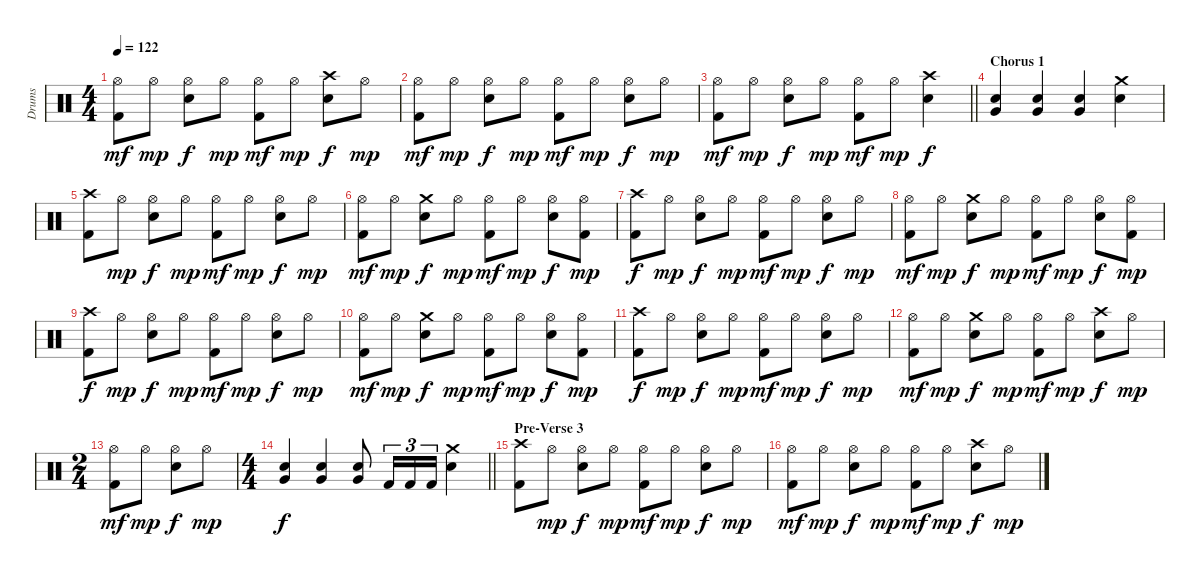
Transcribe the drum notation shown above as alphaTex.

\track ("Drums" "Drums") {instrument percussion}
\staff {score}
\articulation defaults
\ts (4 4)
\tempo 122
\clef neutral
\ks c
("Hi-Hat (open)" "Kick (hit) 2").8{dy mf} "Hi-Hat (open)".8{dy mp} ("Hi-Hat (open)" "Electric Snare (hit)").8{dy f} "Hi-Hat (open)".8{dy mp} ("Hi-Hat (open)" "Kick (hit) 2").8{dy mf} "Hi-Hat (open)".8{dy mp} ("Crash high (hit)" "Electric Snare (hit)").8{dy f} "Hi-Hat (open)".8{dy mp} |
("Hi-Hat (open)" "Kick (hit) 2").8{dy mf} "Hi-Hat (open)".8{dy mp} ("Hi-Hat (open)" "Electric Snare (hit)").8{dy f} "Hi-Hat (open)".8{dy mp} ("Hi-Hat (open)" "Kick (hit) 2").8{dy mf} "Hi-Hat (open)".8{dy mp} ("Hi-Hat (open)" "Electric Snare (hit)").8{dy f} "Hi-Hat (open)".8{dy mp} |
\barLineRight lightlight
("Hi-Hat (open)" "Kick (hit) 2").8{dy mf} "Hi-Hat (open)".8{dy mp} ("Hi-Hat (open)" "Electric Snare (hit)").8{dy f} "Hi-Hat (open)".8{dy mp} ("Hi-Hat (open)" "Kick (hit) 2").8{dy mf} "Hi-Hat (open)".8{dy mp} ("Crash high (hit)" "Electric Snare (hit)").4{dy f} |
\section ("" "Chorus 1")
("Very Low Tom (hit)" "Electric Snare (hit)").4 ("Very Low Tom (hit)" "Electric Snare (hit)").4 ("Very Low Tom (hit)" "Electric Snare (hit)").4 ("Crash medium (hit)" "Electric Snare (hit)").4 |
("Crash high (hit)" "Kick (hit) 2").8 "Hi-Hat (open)".8{dy mp} ("Hi-Hat (open)" "Electric Snare (hit)").8{dy f} "Hi-Hat (open)".8{dy mp} ("Hi-Hat (open)" "Kick (hit) 2").8{dy mf} "Hi-Hat (open)".8{dy mp} ("Hi-Hat (open)" "Electric Snare (hit)").8{dy f} "Hi-Hat (open)".8{dy mp} |
("Hi-Hat (open)" "Kick (hit) 2").8{dy mf} "Hi-Hat (open)".8{dy mp} ("Crash medium (hit)" "Electric Snare (hit)").8{dy f} "Hi-Hat (open)".8{dy mp} ("Hi-Hat (open)" "Kick (hit) 2").8{dy mf} "Hi-Hat (open)".8{dy mp} ("Hi-Hat (open)" "Electric Snare (hit)").8{dy f} ("Hi-Hat (open)" "Kick (hit) 2").8{dy mp} |
("Crash high (hit)" "Kick (hit) 2").8{dy f} "Hi-Hat (open)".8{dy mp} ("Hi-Hat (open)" "Electric Snare (hit)").8{dy f} "Hi-Hat (open)".8{dy mp} ("Hi-Hat (open)" "Kick (hit) 2").8{dy mf} "Hi-Hat (open)".8{dy mp} ("Hi-Hat (open)" "Electric Snare (hit)").8{dy f} "Hi-Hat (open)".8{dy mp} |
("Hi-Hat (open)" "Kick (hit) 2").8{dy mf} "Hi-Hat (open)".8{dy mp} ("Crash medium (hit)" "Electric Snare (hit)").8{dy f} "Hi-Hat (open)".8{dy mp} ("Hi-Hat (open)" "Kick (hit) 2").8{dy mf} "Hi-Hat (open)".8{dy mp} ("Hi-Hat (open)" "Electric Snare (hit)").8{dy f} ("Hi-Hat (open)" "Kick (hit) 2").8{dy mp} |
("Crash high (hit)" "Kick (hit) 2").8{dy f} "Hi-Hat (open)".8{dy mp} ("Hi-Hat (open)" "Electric Snare (hit)").8{dy f} "Hi-Hat (open)".8{dy mp} ("Hi-Hat (open)" "Kick (hit) 2").8{dy mf} "Hi-Hat (open)".8{dy mp} ("Hi-Hat (open)" "Electric Snare (hit)").8{dy f} "Hi-Hat (open)".8{dy mp} |
("Hi-Hat (open)" "Kick (hit) 2").8{dy mf} "Hi-Hat (open)".8{dy mp} ("Crash medium (hit)" "Electric Snare (hit)").8{dy f} "Hi-Hat (open)".8{dy mp} ("Hi-Hat (open)" "Kick (hit) 2").8{dy mf} "Hi-Hat (open)".8{dy mp} ("Hi-Hat (open)" "Electric Snare (hit)").8{dy f} ("Hi-Hat (open)" "Kick (hit) 2").8{dy mp} |
("Crash high (hit)" "Kick (hit) 2").8{dy f} "Hi-Hat (open)".8{dy mp} ("Hi-Hat (open)" "Electric Snare (hit)").8{dy f} "Hi-Hat (open)".8{dy mp} ("Hi-Hat (open)" "Kick (hit) 2").8{dy mf} "Hi-Hat (open)".8{dy mp} ("Hi-Hat (open)" "Electric Snare (hit)").8{dy f} "Hi-Hat (open)".8{dy mp} |
("Hi-Hat (open)" "Kick (hit) 2").8{dy mf} "Hi-Hat (open)".8{dy mp} ("Crash medium (hit)" "Electric Snare (hit)").8{dy f} "Hi-Hat (open)".8{dy mp} ("Hi-Hat (open)" "Kick (hit) 2").8{dy mf} "Hi-Hat (open)".8{dy mp} ("Crash high (hit)" "Electric Snare (hit)").8{dy f} "Hi-Hat (open)".8{dy mp} |
\ts (2 4)
("Hi-Hat (open)" "Kick (hit) 2").8{dy mf} "Hi-Hat (open)".8{dy mp} ("Hi-Hat (open)" "Electric Snare (hit)").8{dy f} "Hi-Hat (open)".8{dy mp} |
\ts (4 4)
\barLineRight lightlight
("Very Low Tom (hit)" "Electric Snare (hit)").4{dy f} ("Very Low Tom (hit)" "Electric Snare (hit)").4 ("Very Low Tom (hit)" "Electric Snare (hit)").8 "Kick (hit) 2".16{tu (3 2)} "Kick (hit) 2".16{tu (3 2)} "Kick (hit) 2".16{tu (3 2)} ("Crash medium (hit)" "Electric Snare (hit)").4 |
\section ("" "Pre-Verse 3")
("Crash high (hit)" "Kick (hit) 2").8 "Hi-Hat (open)".8{dy mp} ("Hi-Hat (open)" "Electric Snare (hit)").8{dy f} "Hi-Hat (open)".8{dy mp} ("Hi-Hat (open)" "Kick (hit) 2").8{dy mf} "Hi-Hat (open)".8{dy mp} ("Hi-Hat (open)" "Electric Snare (hit)").8{dy f} "Hi-Hat (open)".8{dy mp} |
("Hi-Hat (open)" "Kick (hit) 2").8{dy mf} "Hi-Hat (open)".8{dy mp} ("Hi-Hat (open)" "Electric Snare (hit)").8{dy f} "Hi-Hat (open)".8{dy mp} ("Hi-Hat (open)" "Kick (hit) 2").8{dy mf} "Hi-Hat (open)".8{dy mp} ("Crash high (hit)" "Electric Snare (hit)").8{dy f} "Hi-Hat (open)".8{dy mp}
